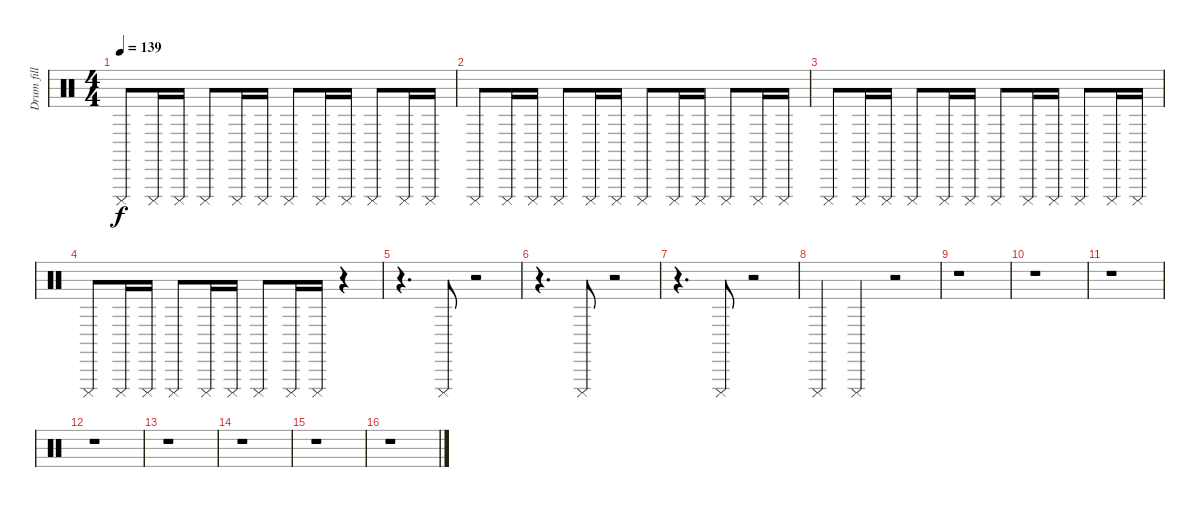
\track ("Drum fill" "Drum fill") {instrument percussion}
\staff {score}
\articulation defaults
\ts (4 4)
\tempo 139
\clef neutral
\ks c "Cuica (mute)".8{dy f} "Cuica (mute)".16 "Cuica (mute)".16 "Cuica (mute)".8 "Cuica (mute)".16 "Cuica (mute)".16 "Cuica (mute)".8 "Cuica (mute)".16 "Cuica (mute)".16 "Cuica (mute)".8 "Cuica (mute)".16 "Cuica (mute)".16
|
"Cuica (mute)".8 "Cuica (mute)".16 "Cuica (mute)".16 "Cuica (mute)".8 "Cuica (mute)".16 "Cuica (mute)".16 "Cuica (mute)".8 "Cuica (mute)".16 "Cuica (mute)".16 "Cuica (mute)".8 "Cuica (mute)".16 "Cuica (mute)".16 |
"Cuica (mute)".8 "Cuica (mute)".16 "Cuica (mute)".16 "Cuica (mute)".8 "Cuica (mute)".16 "Cuica (mute)".16 "Cuica (mute)".8 "Cuica (mute)".16 "Cuica (mute)".16 "Cuica (mute)".8 "Cuica (mute)".16 "Cuica (mute)".16 |
"Cuica (mute)".8 "Cuica (mute)".16 "Cuica (mute)".16 "Cuica (mute)".8 "Cuica (mute)".16 "Cuica (mute)".16 "Cuica (mute)".8 "Cuica (mute)".16 "Cuica (mute)".16 r.4 |
r.4{d} "Cuica (mute)".8 r.2 |
r.4{d} "Cuica (mute)".8 r.2 |
r.4{d} "Cuica (mute)".8 r.2 |
"Cuica (mute)".4 "Cuica (mute)".4 r.2 |
r.1 |
r.1 |
r.1 |
r.1 |
r.1 |
r.1 |
r.1 |
r.1
